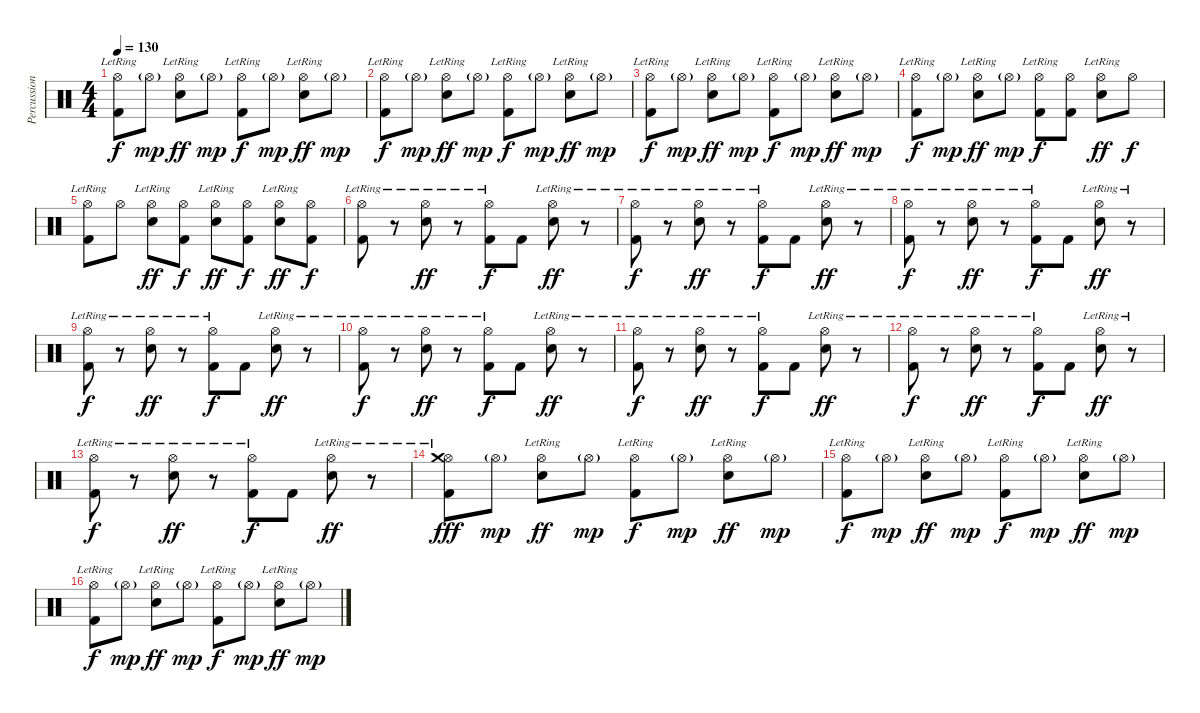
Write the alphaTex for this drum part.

\track ("Percussion" "Percussion") {instrument percussion}
\staff {score}
\articulation defaults
\ts (4 4)
\tempo 130
\clef neutral
\ks c
("Hi-Hat (open)"{lr} "Kick (hit) 2").8{dy f} "Hi-Hat (open)"{g}.8{dy mp} ("Hi-Hat (open)"{lr} "Snare (hit) 2").8{dy ff} "Hi-Hat (open)"{g}.8{dy mp} ("Hi-Hat (open)"{lr} "Kick (hit) 2").8{dy f} "Hi-Hat (open)"{g}.8{dy mp} ("Hi-Hat (open)"{lr} "Snare (hit) 2").8{dy ff} "Hi-Hat (open)"{g}.8{dy mp} |
("Hi-Hat (open)"{lr} "Kick (hit) 2").8{dy f} "Hi-Hat (open)"{g}.8{dy mp} ("Hi-Hat (open)"{lr} "Snare (hit) 2").8{dy ff} "Hi-Hat (open)"{g}.8{dy mp} ("Hi-Hat (open)"{lr} "Kick (hit) 2").8{dy f} "Hi-Hat (open)"{g}.8{dy mp} ("Hi-Hat (open)"{lr} "Snare (hit) 2").8{dy ff} "Hi-Hat (open)"{g}.8{dy mp} |
("Hi-Hat (open)"{lr} "Kick (hit) 2").8{dy f} "Hi-Hat (open)"{g}.8{dy mp} ("Hi-Hat (open)"{lr} "Snare (hit) 2").8{dy ff} "Hi-Hat (open)"{g}.8{dy mp} ("Hi-Hat (open)"{lr} "Kick (hit) 2").8{dy f} "Hi-Hat (open)"{g}.8{dy mp} ("Hi-Hat (open)"{lr} "Snare (hit) 2").8{dy ff} "Hi-Hat (open)"{g}.8{dy mp} |
("Hi-Hat (open)"{lr} "Kick (hit) 2").8{dy f} "Hi-Hat (open)"{g}.8{dy mp} ("Hi-Hat (open)"{lr} "Snare (hit) 2").8{dy ff} "Hi-Hat (open)"{g}.8{dy mp} ("Hi-Hat (open)"{lr} "Kick (hit) 2").8{dy f} ("Hi-Hat (open)" "Kick (hit) 2").8 ("Hi-Hat (open)"{lr} "Snare (hit) 2").8{dy ff} "Hi-Hat (open)".8{dy f} |
("Hi-Hat (open)"{lr} "Kick (hit) 2").8 "Hi-Hat (open)".8 ("Hi-Hat (open)"{lr} "Snare (hit) 2").8{dy ff} ("Hi-Hat (open)" "Kick (hit) 2").8{dy f} ("Hi-Hat (open)"{lr} "Snare (hit) 2").8{dy ff} ("Hi-Hat (open)" "Kick (hit) 2").8{dy f} ("Hi-Hat (open)"{lr} "Snare (hit) 2").8{dy ff} ("Hi-Hat (open)" "Kick (hit) 2").8{dy f} |
("Hi-Hat (open)"{lr} "Kick (hit) 2").8 r.8 ("Hi-Hat (open)"{lr} "Snare (hit) 2").8{dy ff} r.8 ("Hi-Hat (open)"{lr} "Kick (hit) 2").8{dy f} "Kick (hit) 2".8 ("Hi-Hat (open)"{lr} "Snare (hit) 2").8{dy ff} r.8 |
("Hi-Hat (open)"{lr} "Kick (hit) 2").8{dy f} r.8 ("Hi-Hat (open)"{lr} "Snare (hit) 2").8{dy ff} r.8 ("Hi-Hat (open)"{lr} "Kick (hit) 2").8{dy f} "Kick (hit) 2".8 ("Hi-Hat (open)"{lr} "Snare (hit) 2").8{dy ff} r.8 |
("Hi-Hat (open)"{lr} "Kick (hit) 2").8{dy f} r.8 ("Hi-Hat (open)"{lr} "Snare (hit) 2").8{dy ff} r.8 ("Hi-Hat (open)"{lr} "Kick (hit) 2").8{dy f} "Kick (hit) 2".8 ("Hi-Hat (open)"{lr} "Snare (hit) 2").8{dy ff} r.8 |
("Hi-Hat (open)"{lr} "Kick (hit) 2").8{dy f} r.8 ("Hi-Hat (open)"{lr} "Snare (hit) 2").8{dy ff} r.8 ("Hi-Hat (open)"{lr} "Kick (hit) 2").8{dy f} "Kick (hit) 2".8 ("Hi-Hat (open)"{lr} "Snare (hit) 2").8{dy ff} r.8 |
("Hi-Hat (open)"{lr} "Kick (hit) 2").8{dy f} r.8 ("Hi-Hat (open)"{lr} "Snare (hit) 2").8{dy ff} r.8 ("Hi-Hat (open)"{lr} "Kick (hit) 2").8{dy f} "Kick (hit) 2".8 ("Hi-Hat (open)"{lr} "Snare (hit) 2").8{dy ff} r.8 |
("Hi-Hat (open)"{lr} "Kick (hit) 2").8{dy f} r.8 ("Hi-Hat (open)"{lr} "Snare (hit) 2").8{dy ff} r.8 ("Hi-Hat (open)"{lr} "Kick (hit) 2").8{dy f} "Kick (hit) 2".8 ("Hi-Hat (open)"{lr} "Snare (hit) 2").8{dy ff} r.8 |
("Hi-Hat (open)"{lr} "Kick (hit) 2").8{dy f} r.8 ("Hi-Hat (open)"{lr} "Snare (hit) 2").8{dy ff} r.8 ("Hi-Hat (open)"{lr} "Kick (hit) 2").8{dy f} "Kick (hit) 2".8 ("Hi-Hat (open)"{lr} "Snare (hit) 2").8{dy ff} r.8 |
("Hi-Hat (open)"{lr} "Kick (hit) 2").8{dy f} r.8 ("Hi-Hat (open)"{lr} "Snare (hit) 2").8{dy ff} r.8 ("Hi-Hat (open)"{lr} "Kick (hit) 2").8{dy f} "Kick (hit) 2".8 ("Hi-Hat (open)"{lr} "Snare (hit) 2").8{dy ff} r.8 |
("Hi-Hat (open)"{lr} "Crash medium (hit)"{lr} "Kick (hit) 2").8{dy fff} "Hi-Hat (open)"{g}.8{dy mp} ("Hi-Hat (open)"{lr} "Snare (hit) 2").8{dy ff} "Hi-Hat (open)"{g}.8{dy mp} ("Hi-Hat (open)"{lr} "Kick (hit) 2").8{dy f} "Hi-Hat (open)"{g}.8{dy mp} ("Hi-Hat (open)"{lr} "Snare (hit) 2").8{dy ff} "Hi-Hat (open)"{g}.8{dy mp} |
("Hi-Hat (open)"{lr} "Kick (hit) 2").8{dy f} "Hi-Hat (open)"{g}.8{dy mp} ("Hi-Hat (open)"{lr} "Snare (hit) 2").8{dy ff} "Hi-Hat (open)"{g}.8{dy mp} ("Hi-Hat (open)"{lr} "Kick (hit) 2").8{dy f} "Hi-Hat (open)"{g}.8{dy mp} ("Hi-Hat (open)"{lr} "Snare (hit) 2").8{dy ff} "Hi-Hat (open)"{g}.8{dy mp} |
("Hi-Hat (open)"{lr} "Kick (hit) 2").8{dy f} "Hi-Hat (open)"{g}.8{dy mp} ("Hi-Hat (open)"{lr} "Snare (hit) 2").8{dy ff} "Hi-Hat (open)"{g}.8{dy mp} ("Hi-Hat (open)"{lr} "Kick (hit) 2").8{dy f} "Hi-Hat (open)"{g}.8{dy mp} ("Hi-Hat (open)"{lr} "Snare (hit) 2").8{dy ff} "Hi-Hat (open)"{g}.8{dy mp}
